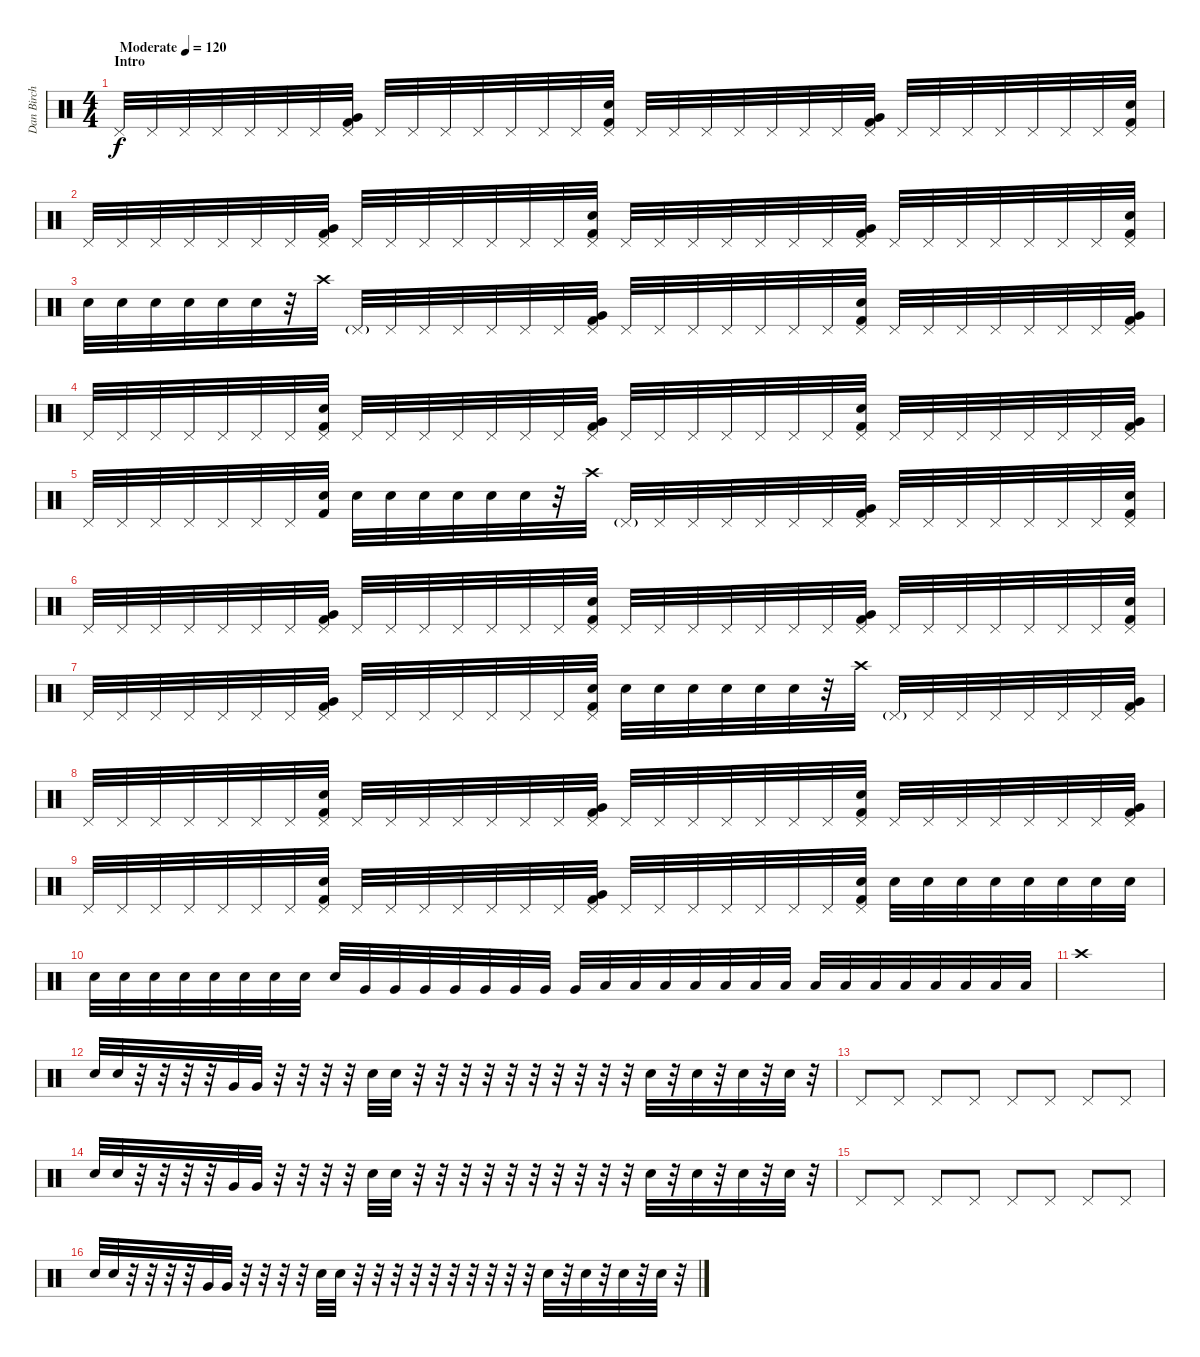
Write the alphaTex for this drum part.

\track ("Dan Birch" "Dan Birch") {instrument percussion}
\staff {score}
\articulation defaults
\ts (4 4)
\section ("" "Intro")
\tempo (120 "Moderate")
\clef neutral
\ks c "Pedal Hi-Hat (hit)".32{dy f} "Pedal Hi-Hat (hit)".32 "Pedal Hi-Hat (hit)".32 "Pedal Hi-Hat (hit)".32 "Pedal Hi-Hat (hit)".32 "Pedal Hi-Hat (hit)".32 "Pedal Hi-Hat (hit)".32
("Pedal Hi-Hat (hit)" "Very Low Tom (hit)" "Kick (hit) 2").32 "Pedal Hi-Hat (hit)".32 "Pedal Hi-Hat (hit)".32 "Pedal Hi-Hat (hit)".32 "Pedal Hi-Hat (hit)".32 "Pedal Hi-Hat (hit)".32 "Pedal Hi-Hat (hit)".32 "Pedal Hi-Hat (hit)".32 ("Pedal Hi-Hat (hit)" "Snare (hit) 2" "Kick (hit) 2").32 "Pedal Hi-Hat (hit)".32 "Pedal Hi-Hat (hit)".32 "Pedal Hi-Hat (hit)".32 "Pedal Hi-Hat (hit)".32 "Pedal Hi-Hat (hit)".32 "Pedal Hi-Hat (hit)".32 "Pedal Hi-Hat (hit)".32 ("Pedal Hi-Hat (hit)" "Very Low Tom (hit)" "Kick (hit) 2").32 "Pedal Hi-Hat (hit)".32 "Pedal Hi-Hat (hit)".32 "Pedal Hi-Hat (hit)".32 "Pedal Hi-Hat (hit)".32 "Pedal Hi-Hat (hit)".32 "Pedal Hi-Hat (hit)".32 "Pedal Hi-Hat (hit)".32 ("Pedal Hi-Hat (hit)" "Snare (hit) 2" "Kick (hit) 2").32 |
"Pedal Hi-Hat (hit)".32 "Pedal Hi-Hat (hit)".32 "Pedal Hi-Hat (hit)".32 "Pedal Hi-Hat (hit)".32 "Pedal Hi-Hat (hit)".32 "Pedal Hi-Hat (hit)".32 "Pedal Hi-Hat (hit)".32 ("Pedal Hi-Hat (hit)" "Very Low Tom (hit)" "Kick (hit) 2").32 "Pedal Hi-Hat (hit)".32 "Pedal Hi-Hat (hit)".32 "Pedal Hi-Hat (hit)".32 "Pedal Hi-Hat (hit)".32 "Pedal Hi-Hat (hit)".32 "Pedal Hi-Hat (hit)".32 "Pedal Hi-Hat (hit)".32 ("Pedal Hi-Hat (hit)" "Snare (hit) 2" "Kick (hit) 2").32 "Pedal Hi-Hat (hit)".32 "Pedal Hi-Hat (hit)".32 "Pedal Hi-Hat (hit)".32 "Pedal Hi-Hat (hit)".32 "Pedal Hi-Hat (hit)".32 "Pedal Hi-Hat (hit)".32 "Pedal Hi-Hat (hit)".32 ("Pedal Hi-Hat (hit)" "Very Low Tom (hit)" "Kick (hit) 2").32 "Pedal Hi-Hat (hit)".32 "Pedal Hi-Hat (hit)".32 "Pedal Hi-Hat (hit)".32 "Pedal Hi-Hat (hit)".32 "Pedal Hi-Hat (hit)".32 "Pedal Hi-Hat (hit)".32 "Pedal Hi-Hat (hit)".32 ("Pedal Hi-Hat (hit)" "Snare (hit) 2" "Kick (hit) 2").32 |
"Snare (hit) 2".32 "Snare (hit) 2".32 "Snare (hit) 2".32 "Snare (hit) 2".32 "Snare (hit) 2".32 "Snare (hit) 2".32 r.32 "Crash high (hit)".32 "Pedal Hi-Hat (hit)"{g}.32 "Pedal Hi-Hat (hit)".32 "Pedal Hi-Hat (hit)".32 "Pedal Hi-Hat (hit)".32 "Pedal Hi-Hat (hit)".32 "Pedal Hi-Hat (hit)".32 "Pedal Hi-Hat (hit)".32 ("Pedal Hi-Hat (hit)" "Very Low Tom (hit)" "Kick (hit) 2").32 "Pedal Hi-Hat (hit)".32 "Pedal Hi-Hat (hit)".32 "Pedal Hi-Hat (hit)".32 "Pedal Hi-Hat (hit)".32 "Pedal Hi-Hat (hit)".32 "Pedal Hi-Hat (hit)".32 "Pedal Hi-Hat (hit)".32 ("Pedal Hi-Hat (hit)" "Snare (hit) 2" "Kick (hit) 2").32 "Pedal Hi-Hat (hit)".32 "Pedal Hi-Hat (hit)".32 "Pedal Hi-Hat (hit)".32 "Pedal Hi-Hat (hit)".32 "Pedal Hi-Hat (hit)".32 "Pedal Hi-Hat (hit)".32 "Pedal Hi-Hat (hit)".32 ("Pedal Hi-Hat (hit)" "Very Low Tom (hit)" "Kick (hit) 2").32 |
"Pedal Hi-Hat (hit)".32 "Pedal Hi-Hat (hit)".32 "Pedal Hi-Hat (hit)".32 "Pedal Hi-Hat (hit)".32 "Pedal Hi-Hat (hit)".32 "Pedal Hi-Hat (hit)".32 "Pedal Hi-Hat (hit)".32 ("Pedal Hi-Hat (hit)" "Snare (hit) 2" "Kick (hit) 2").32 "Pedal Hi-Hat (hit)".32 "Pedal Hi-Hat (hit)".32 "Pedal Hi-Hat (hit)".32 "Pedal Hi-Hat (hit)".32 "Pedal Hi-Hat (hit)".32 "Pedal Hi-Hat (hit)".32 "Pedal Hi-Hat (hit)".32 ("Pedal Hi-Hat (hit)" "Very Low Tom (hit)" "Kick (hit) 2").32 "Pedal Hi-Hat (hit)".32 "Pedal Hi-Hat (hit)".32 "Pedal Hi-Hat (hit)".32 "Pedal Hi-Hat (hit)".32 "Pedal Hi-Hat (hit)".32 "Pedal Hi-Hat (hit)".32 "Pedal Hi-Hat (hit)".32 ("Pedal Hi-Hat (hit)" "Snare (hit) 2" "Kick (hit) 2").32 "Pedal Hi-Hat (hit)".32 "Pedal Hi-Hat (hit)".32 "Pedal Hi-Hat (hit)".32 "Pedal Hi-Hat (hit)".32 "Pedal Hi-Hat (hit)".32 "Pedal Hi-Hat (hit)".32 "Pedal Hi-Hat (hit)".32 ("Pedal Hi-Hat (hit)" "Very Low Tom (hit)" "Kick (hit) 2").32 |
"Pedal Hi-Hat (hit)".32 "Pedal Hi-Hat (hit)".32 "Pedal Hi-Hat (hit)".32 "Pedal Hi-Hat (hit)".32 "Pedal Hi-Hat (hit)".32 "Pedal Hi-Hat (hit)".32 "Pedal Hi-Hat (hit)".32 ("Snare (hit) 2" "Kick (hit) 2").32 "Snare (hit) 2".32 "Snare (hit) 2".32 "Snare (hit) 2".32 "Snare (hit) 2".32 "Snare (hit) 2".32 "Snare (hit) 2".32 r.32 "Crash high (hit)".32 "Pedal Hi-Hat (hit)"{g}.32 "Pedal Hi-Hat (hit)".32 "Pedal Hi-Hat (hit)".32 "Pedal Hi-Hat (hit)".32 "Pedal Hi-Hat (hit)".32 "Pedal Hi-Hat (hit)".32 "Pedal Hi-Hat (hit)".32 ("Pedal Hi-Hat (hit)" "Very Low Tom (hit)" "Kick (hit) 2").32 "Pedal Hi-Hat (hit)".32 "Pedal Hi-Hat (hit)".32 "Pedal Hi-Hat (hit)".32 "Pedal Hi-Hat (hit)".32 "Pedal Hi-Hat (hit)".32 "Pedal Hi-Hat (hit)".32 "Pedal Hi-Hat (hit)".32 ("Pedal Hi-Hat (hit)" "Snare (hit) 2" "Kick (hit) 2").32 |
"Pedal Hi-Hat (hit)".32 "Pedal Hi-Hat (hit)".32 "Pedal Hi-Hat (hit)".32 "Pedal Hi-Hat (hit)".32 "Pedal Hi-Hat (hit)".32 "Pedal Hi-Hat (hit)".32 "Pedal Hi-Hat (hit)".32 ("Pedal Hi-Hat (hit)" "Very Low Tom (hit)" "Kick (hit) 2").32 "Pedal Hi-Hat (hit)".32 "Pedal Hi-Hat (hit)".32 "Pedal Hi-Hat (hit)".32 "Pedal Hi-Hat (hit)".32 "Pedal Hi-Hat (hit)".32 "Pedal Hi-Hat (hit)".32 "Pedal Hi-Hat (hit)".32 ("Pedal Hi-Hat (hit)" "Snare (hit) 2" "Kick (hit) 2").32 "Pedal Hi-Hat (hit)".32 "Pedal Hi-Hat (hit)".32 "Pedal Hi-Hat (hit)".32 "Pedal Hi-Hat (hit)".32 "Pedal Hi-Hat (hit)".32 "Pedal Hi-Hat (hit)".32 "Pedal Hi-Hat (hit)".32 ("Pedal Hi-Hat (hit)" "Very Low Tom (hit)" "Kick (hit) 2").32 "Pedal Hi-Hat (hit)".32 "Pedal Hi-Hat (hit)".32 "Pedal Hi-Hat (hit)".32 "Pedal Hi-Hat (hit)".32 "Pedal Hi-Hat (hit)".32 "Pedal Hi-Hat (hit)".32 "Pedal Hi-Hat (hit)".32 ("Pedal Hi-Hat (hit)" "Snare (hit) 2" "Kick (hit) 2").32 |
"Pedal Hi-Hat (hit)".32 "Pedal Hi-Hat (hit)".32 "Pedal Hi-Hat (hit)".32 "Pedal Hi-Hat (hit)".32 "Pedal Hi-Hat (hit)".32 "Pedal Hi-Hat (hit)".32 "Pedal Hi-Hat (hit)".32 ("Pedal Hi-Hat (hit)" "Very Low Tom (hit)" "Kick (hit) 2").32 "Pedal Hi-Hat (hit)".32 "Pedal Hi-Hat (hit)".32 "Pedal Hi-Hat (hit)".32 "Pedal Hi-Hat (hit)".32 "Pedal Hi-Hat (hit)".32 "Pedal Hi-Hat (hit)".32 "Pedal Hi-Hat (hit)".32 ("Pedal Hi-Hat (hit)" "Snare (hit) 2" "Kick (hit) 2").32 "Snare (hit) 2".32 "Snare (hit) 2".32 "Snare (hit) 2".32 "Snare (hit) 2".32 "Snare (hit) 2".32 "Snare (hit) 2".32 r.32 "Crash high (hit)".32 "Pedal Hi-Hat (hit)"{g}.32 "Pedal Hi-Hat (hit)".32 "Pedal Hi-Hat (hit)".32 "Pedal Hi-Hat (hit)".32 "Pedal Hi-Hat (hit)".32 "Pedal Hi-Hat (hit)".32 "Pedal Hi-Hat (hit)".32 ("Pedal Hi-Hat (hit)" "Very Low Tom (hit)" "Kick (hit) 2").32 |
"Pedal Hi-Hat (hit)".32 "Pedal Hi-Hat (hit)".32 "Pedal Hi-Hat (hit)".32 "Pedal Hi-Hat (hit)".32 "Pedal Hi-Hat (hit)".32 "Pedal Hi-Hat (hit)".32 "Pedal Hi-Hat (hit)".32 ("Pedal Hi-Hat (hit)" "Snare (hit) 2" "Kick (hit) 2").32 "Pedal Hi-Hat (hit)".32 "Pedal Hi-Hat (hit)".32 "Pedal Hi-Hat (hit)".32 "Pedal Hi-Hat (hit)".32 "Pedal Hi-Hat (hit)".32 "Pedal Hi-Hat (hit)".32 "Pedal Hi-Hat (hit)".32 ("Pedal Hi-Hat (hit)" "Very Low Tom (hit)" "Kick (hit) 2").32 "Pedal Hi-Hat (hit)".32 "Pedal Hi-Hat (hit)".32 "Pedal Hi-Hat (hit)".32 "Pedal Hi-Hat (hit)".32 "Pedal Hi-Hat (hit)".32 "Pedal Hi-Hat (hit)".32 "Pedal Hi-Hat (hit)".32 ("Pedal Hi-Hat (hit)" "Snare (hit) 2" "Kick (hit) 2").32 "Pedal Hi-Hat (hit)".32 "Pedal Hi-Hat (hit)".32 "Pedal Hi-Hat (hit)".32 "Pedal Hi-Hat (hit)".32 "Pedal Hi-Hat (hit)".32 "Pedal Hi-Hat (hit)".32 "Pedal Hi-Hat (hit)".32 ("Pedal Hi-Hat (hit)" "Very Low Tom (hit)" "Kick (hit) 2").32 |
"Pedal Hi-Hat (hit)".32 "Pedal Hi-Hat (hit)".32 "Pedal Hi-Hat (hit)".32 "Pedal Hi-Hat (hit)".32 "Pedal Hi-Hat (hit)".32 "Pedal Hi-Hat (hit)".32 "Pedal Hi-Hat (hit)".32 ("Pedal Hi-Hat (hit)" "Snare (hit) 2" "Kick (hit) 2").32 "Pedal Hi-Hat (hit)".32 "Pedal Hi-Hat (hit)".32 "Pedal Hi-Hat (hit)".32 "Pedal Hi-Hat (hit)".32 "Pedal Hi-Hat (hit)".32 "Pedal Hi-Hat (hit)".32 "Pedal Hi-Hat (hit)".32 ("Pedal Hi-Hat (hit)" "Very Low Tom (hit)" "Kick (hit) 2").32 "Pedal Hi-Hat (hit)".32 "Pedal Hi-Hat (hit)".32 "Pedal Hi-Hat (hit)".32 "Pedal Hi-Hat (hit)".32 "Pedal Hi-Hat (hit)".32 "Pedal Hi-Hat (hit)".32 "Pedal Hi-Hat (hit)".32 ("Pedal Hi-Hat (hit)" "Snare (hit) 2" "Kick (hit) 2").32 "Snare (hit) 2".32 "Snare (hit) 2".32 "Snare (hit) 2".32 "Snare (hit) 2".32 "Snare (hit) 2".32 "Snare (hit) 2".32 "Snare (hit) 2".32 "Snare (hit) 2".32 |
"Snare (hit) 2".32 "Snare (hit) 2".32 "Snare (hit) 2".32 "Snare (hit) 2".32 "Snare (hit) 2".32 "Snare (hit) 2".32 "Snare (hit) 2".32 "Snare (hit) 2".32 "Snare (hit) 2".32 "Very Low Tom (hit)".32 "Very Low Tom (hit)".32 "Very Low Tom (hit)".32 "Very Low Tom (hit)".32 "Very Low Tom (hit)".32 "Very Low Tom (hit)".32 "Very Low Tom (hit)".32 "Very Low Tom (hit)".32 "Low Tom (hit)".32 "Low Tom (hit)".32 "Low Tom (hit)".32 "Low Tom (hit)".32 "Low Tom (hit)".32 "Low Tom (hit)".32 "Low Tom (hit)".32 "Low Tom (hit)".32 "Low Floor Tom (hit)".32 "Low Floor Tom (hit)".32 "Low Floor Tom (hit)".32 "Low Floor Tom (hit)".32 "Low Floor Tom (hit)".32 "Low Floor Tom (hit)".32 "Low Floor Tom (hit)".32 |
"Crash high (hit)".1 |
"Snare (hit) 2".32 "Snare (hit) 2".32 r.32 r.32 r.32 r.32 "Very Low Tom (hit)".32 "Very Low Tom (hit)".32 r.32 r.32 r.32 r.32 "Snare (hit) 2".32 "Snare (hit) 2".32 r.32 r.32 r.32 r.32 r.32 r.32 r.32 r.32 r.32 r.32 "Snare (hit) 2".32 r.32 "Snare (hit) 2".32 r.32 "Snare (hit) 2".32 r.32 "Snare (hit) 2".32 r.32 |
"Pedal Hi-Hat (hit)".8 "Pedal Hi-Hat (hit)".8 "Pedal Hi-Hat (hit)".8 "Pedal Hi-Hat (hit)".8 "Pedal Hi-Hat (hit)".8 "Pedal Hi-Hat (hit)".8 "Pedal Hi-Hat (hit)".8 "Pedal Hi-Hat (hit)".8 |
"Snare (hit) 2".32 "Snare (hit) 2".32 r.32 r.32 r.32 r.32 "Very Low Tom (hit)".32 "Very Low Tom (hit)".32 r.32 r.32 r.32 r.32 "Snare (hit) 2".32 "Snare (hit) 2".32 r.32 r.32 r.32 r.32 r.32 r.32 r.32 r.32 r.32 r.32 "Snare (hit) 2".32 r.32 "Snare (hit) 2".32 r.32 "Snare (hit) 2".32 r.32 "Snare (hit) 2".32 r.32 |
"Pedal Hi-Hat (hit)".8 "Pedal Hi-Hat (hit)".8 "Pedal Hi-Hat (hit)".8 "Pedal Hi-Hat (hit)".8 "Pedal Hi-Hat (hit)".8 "Pedal Hi-Hat (hit)".8 "Pedal Hi-Hat (hit)".8 "Pedal Hi-Hat (hit)".8 |
"Snare (hit) 2".32 "Snare (hit) 2".32 r.32 r.32 r.32 r.32 "Very Low Tom (hit)".32 "Very Low Tom (hit)".32 r.32 r.32 r.32 r.32 "Snare (hit) 2".32 "Snare (hit) 2".32 r.32 r.32 r.32 r.32 r.32 r.32 r.32 r.32 r.32 r.32 "Snare (hit) 2".32 r.32 "Snare (hit) 2".32 r.32 "Snare (hit) 2".32 r.32 "Snare (hit) 2".32 r.32
